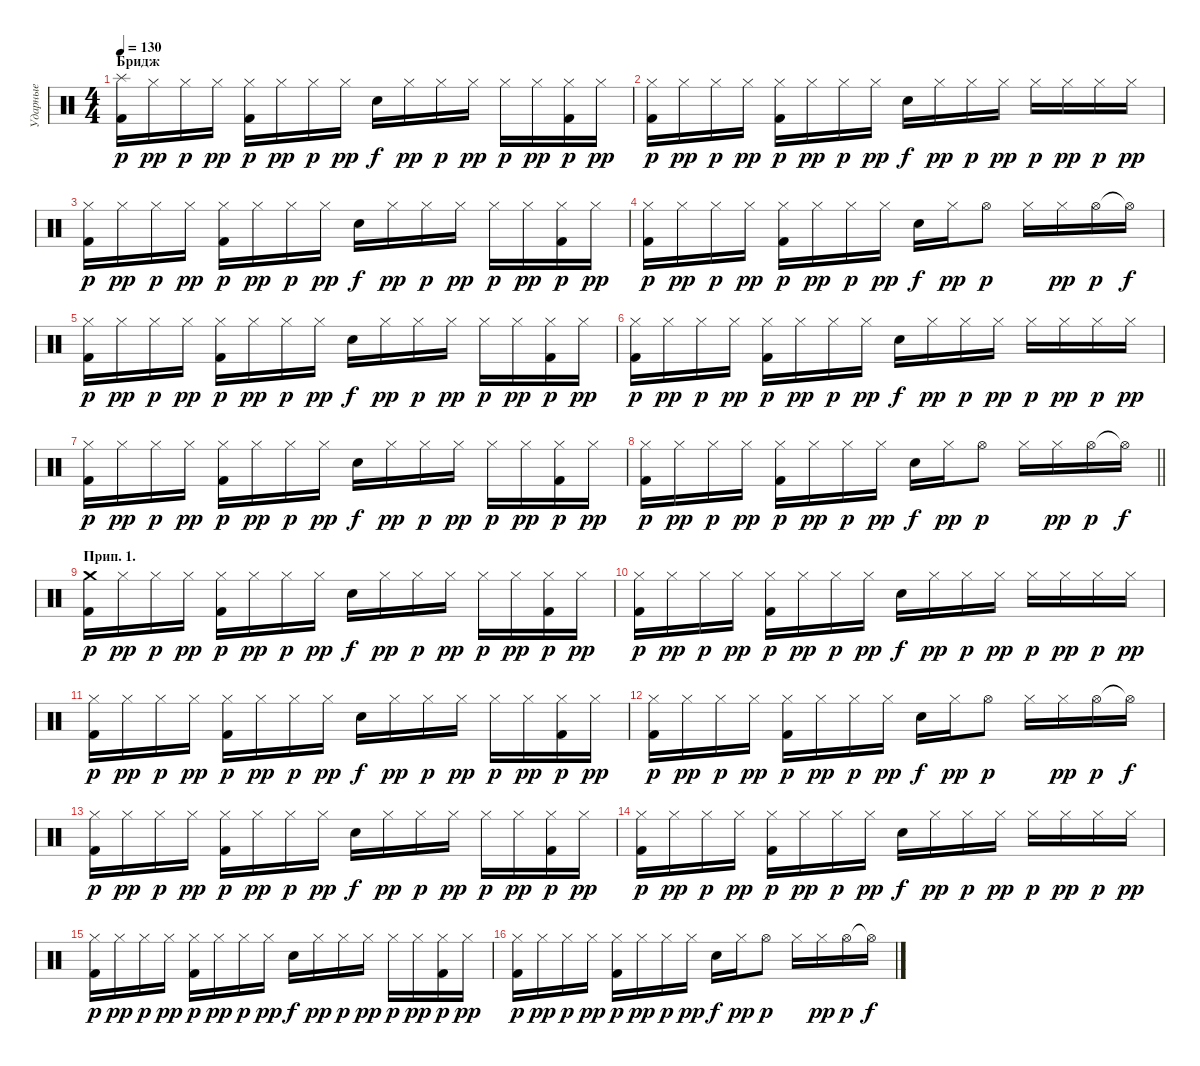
\track ("Ударные" "Ударные") {instrument percussion}
\staff {score}
\articulation defaults
\ts (4 4)
\section ("" "Бридж")
\tempo 130
\clef neutral
\ks c
("Splash (hit)" "Kick (hit) 2").16{dy p} "Hi-Hat (closed)".16{dy pp} "Hi-Hat (closed)".16{dy p} "Hi-Hat (closed)".16{dy pp} ("Hi-Hat (closed)" "Kick (hit) 2").16{dy p} "Hi-Hat (closed)".16{dy pp} "Hi-Hat (closed)".16{dy p} "Hi-Hat (closed)".16{dy pp} "Snare (hit) 2".16{dy f} "Hi-Hat (closed)".16{dy pp} "Hi-Hat (closed)".16{dy p} "Hi-Hat (closed)".16{dy pp} "Hi-Hat (closed)".16{dy p} "Hi-Hat (closed)".16{dy pp} ("Hi-Hat (closed)" "Kick (hit) 2").16{dy p} "Hi-Hat (closed)".16{dy pp} |
("Hi-Hat (closed)" "Kick (hit) 2").16{dy p} "Hi-Hat (closed)".16{dy pp} "Hi-Hat (closed)".16{dy p} "Hi-Hat (closed)".16{dy pp} ("Hi-Hat (closed)" "Kick (hit) 2").16{dy p} "Hi-Hat (closed)".16{dy pp} "Hi-Hat (closed)".16{dy p} "Hi-Hat (closed)".16{dy pp} "Snare (hit) 2".16{dy f} "Hi-Hat (closed)".16{dy pp} "Hi-Hat (closed)".16{dy p} "Hi-Hat (closed)".16{dy pp} "Hi-Hat (closed)".16{dy p} "Hi-Hat (closed)".16{dy pp} "Hi-Hat (closed)".16{dy p} "Hi-Hat (closed)".16{dy pp} |
("Hi-Hat (closed)" "Kick (hit) 2").16{dy p} "Hi-Hat (closed)".16{dy pp} "Hi-Hat (closed)".16{dy p} "Hi-Hat (closed)".16{dy pp} ("Hi-Hat (closed)" "Kick (hit) 2").16{dy p} "Hi-Hat (closed)".16{dy pp} "Hi-Hat (closed)".16{dy p} "Hi-Hat (closed)".16{dy pp} "Snare (hit) 2".16{dy f} "Hi-Hat (closed)".16{dy pp} "Hi-Hat (closed)".16{dy p} "Hi-Hat (closed)".16{dy pp} "Hi-Hat (closed)".16{dy p} "Hi-Hat (closed)".16{dy pp} ("Hi-Hat (closed)" "Kick (hit) 2").16{dy p} "Hi-Hat (closed)".16{dy pp} |
("Hi-Hat (closed)" "Kick (hit) 2").16{dy p} "Hi-Hat (closed)".16{dy pp} "Hi-Hat (closed)".16{dy p} "Hi-Hat (closed)".16{dy pp} ("Hi-Hat (closed)" "Kick (hit) 2").16{dy p} "Hi-Hat (closed)".16{dy pp} "Hi-Hat (closed)".16{dy p} "Hi-Hat (closed)".16{dy pp} "Snare (hit) 2".16{dy f} "Hi-Hat (closed)".16{dy pp} "Hi-Hat (open)".8{dy p} "Hi-Hat (closed)".16 "Hi-Hat (closed)".16{dy pp} "Hi-Hat (open)".16{dy p} "Hi-Hat (open)"{t}.16{dy f} |
("Hi-Hat (closed)" "Kick (hit) 2").16{dy p} "Hi-Hat (closed)".16{dy pp} "Hi-Hat (closed)".16{dy p} "Hi-Hat (closed)".16{dy pp} ("Hi-Hat (closed)" "Kick (hit) 2").16{dy p} "Hi-Hat (closed)".16{dy pp} "Hi-Hat (closed)".16{dy p} "Hi-Hat (closed)".16{dy pp} "Snare (hit) 2".16{dy f} "Hi-Hat (closed)".16{dy pp} "Hi-Hat (closed)".16{dy p} "Hi-Hat (closed)".16{dy pp} "Hi-Hat (closed)".16{dy p} "Hi-Hat (closed)".16{dy pp} ("Hi-Hat (closed)" "Kick (hit) 2").16{dy p} "Hi-Hat (closed)".16{dy pp} |
("Hi-Hat (closed)" "Kick (hit) 2").16{dy p} "Hi-Hat (closed)".16{dy pp} "Hi-Hat (closed)".16{dy p} "Hi-Hat (closed)".16{dy pp} ("Hi-Hat (closed)" "Kick (hit) 2").16{dy p} "Hi-Hat (closed)".16{dy pp} "Hi-Hat (closed)".16{dy p} "Hi-Hat (closed)".16{dy pp} "Snare (hit) 2".16{dy f} "Hi-Hat (closed)".16{dy pp} "Hi-Hat (closed)".16{dy p} "Hi-Hat (closed)".16{dy pp} "Hi-Hat (closed)".16{dy p} "Hi-Hat (closed)".16{dy pp} "Hi-Hat (closed)".16{dy p} "Hi-Hat (closed)".16{dy pp} |
("Hi-Hat (closed)" "Kick (hit) 2").16{dy p} "Hi-Hat (closed)".16{dy pp} "Hi-Hat (closed)".16{dy p} "Hi-Hat (closed)".16{dy pp} ("Hi-Hat (closed)" "Kick (hit) 2").16{dy p} "Hi-Hat (closed)".16{dy pp} "Hi-Hat (closed)".16{dy p} "Hi-Hat (closed)".16{dy pp} "Snare (hit) 2".16{dy f} "Hi-Hat (closed)".16{dy pp} "Hi-Hat (closed)".16{dy p} "Hi-Hat (closed)".16{dy pp} "Hi-Hat (closed)".16{dy p} "Hi-Hat (closed)".16{dy pp} ("Hi-Hat (closed)" "Kick (hit) 2").16{dy p} "Hi-Hat (closed)".16{dy pp} |
\barLineRight lightlight
("Hi-Hat (closed)" "Kick (hit) 2").16{dy p} "Hi-Hat (closed)".16{dy pp} "Hi-Hat (closed)".16{dy p} "Hi-Hat (closed)".16{dy pp} ("Hi-Hat (closed)" "Kick (hit) 2").16{dy p} "Hi-Hat (closed)".16{dy pp} "Hi-Hat (closed)".16{dy p} "Hi-Hat (closed)".16{dy pp} "Snare (hit) 2".16{dy f} "Hi-Hat (closed)".16{dy pp} "Hi-Hat (open)".8{dy p} "Hi-Hat (closed)".16 "Hi-Hat (closed)".16{dy pp} "Hi-Hat (open)".16{dy p} "Hi-Hat (open)"{t}.16{dy f} |
\section ("" "Прип. 1.")
("Crash medium (hit)" "Kick (hit) 2").16{dy p} "Hi-Hat (closed)".16{dy pp} "Hi-Hat (closed)".16{dy p} "Hi-Hat (closed)".16{dy pp} ("Hi-Hat (closed)" "Kick (hit) 2").16{dy p} "Hi-Hat (closed)".16{dy pp} "Hi-Hat (closed)".16{dy p} "Hi-Hat (closed)".16{dy pp} "Snare (hit) 2".16{dy f} "Hi-Hat (closed)".16{dy pp} "Hi-Hat (closed)".16{dy p} "Hi-Hat (closed)".16{dy pp} "Hi-Hat (closed)".16{dy p} "Hi-Hat (closed)".16{dy pp} ("Hi-Hat (closed)" "Kick (hit) 2").16{dy p} "Hi-Hat (closed)".16{dy pp} |
("Hi-Hat (closed)" "Kick (hit) 2").16{dy p} "Hi-Hat (closed)".16{dy pp} "Hi-Hat (closed)".16{dy p} "Hi-Hat (closed)".16{dy pp} ("Hi-Hat (closed)" "Kick (hit) 2").16{dy p} "Hi-Hat (closed)".16{dy pp} "Hi-Hat (closed)".16{dy p} "Hi-Hat (closed)".16{dy pp} "Snare (hit) 2".16{dy f} "Hi-Hat (closed)".16{dy pp} "Hi-Hat (closed)".16{dy p} "Hi-Hat (closed)".16{dy pp} "Hi-Hat (closed)".16{dy p} "Hi-Hat (closed)".16{dy pp} "Hi-Hat (closed)".16{dy p} "Hi-Hat (closed)".16{dy pp} |
("Hi-Hat (closed)" "Kick (hit) 2").16{dy p} "Hi-Hat (closed)".16{dy pp} "Hi-Hat (closed)".16{dy p} "Hi-Hat (closed)".16{dy pp} ("Hi-Hat (closed)" "Kick (hit) 2").16{dy p} "Hi-Hat (closed)".16{dy pp} "Hi-Hat (closed)".16{dy p} "Hi-Hat (closed)".16{dy pp} "Snare (hit) 2".16{dy f} "Hi-Hat (closed)".16{dy pp} "Hi-Hat (closed)".16{dy p} "Hi-Hat (closed)".16{dy pp} "Hi-Hat (closed)".16{dy p} "Hi-Hat (closed)".16{dy pp} ("Hi-Hat (closed)" "Kick (hit) 2").16{dy p} "Hi-Hat (closed)".16{dy pp} |
("Hi-Hat (closed)" "Kick (hit) 2").16{dy p} "Hi-Hat (closed)".16{dy pp} "Hi-Hat (closed)".16{dy p} "Hi-Hat (closed)".16{dy pp} ("Hi-Hat (closed)" "Kick (hit) 2").16{dy p} "Hi-Hat (closed)".16{dy pp} "Hi-Hat (closed)".16{dy p} "Hi-Hat (closed)".16{dy pp} "Snare (hit) 2".16{dy f} "Hi-Hat (closed)".16{dy pp} "Hi-Hat (open)".8{dy p} "Hi-Hat (closed)".16 "Hi-Hat (closed)".16{dy pp} "Hi-Hat (open)".16{dy p} "Hi-Hat (open)"{t}.16{dy f} |
("Hi-Hat (closed)" "Kick (hit) 2").16{dy p} "Hi-Hat (closed)".16{dy pp} "Hi-Hat (closed)".16{dy p} "Hi-Hat (closed)".16{dy pp} ("Hi-Hat (closed)" "Kick (hit) 2").16{dy p} "Hi-Hat (closed)".16{dy pp} "Hi-Hat (closed)".16{dy p} "Hi-Hat (closed)".16{dy pp} "Snare (hit) 2".16{dy f} "Hi-Hat (closed)".16{dy pp} "Hi-Hat (closed)".16{dy p} "Hi-Hat (closed)".16{dy pp} "Hi-Hat (closed)".16{dy p} "Hi-Hat (closed)".16{dy pp} ("Hi-Hat (closed)" "Kick (hit) 2").16{dy p} "Hi-Hat (closed)".16{dy pp} |
("Hi-Hat (closed)" "Kick (hit) 2").16{dy p} "Hi-Hat (closed)".16{dy pp} "Hi-Hat (closed)".16{dy p} "Hi-Hat (closed)".16{dy pp} ("Hi-Hat (closed)" "Kick (hit) 2").16{dy p} "Hi-Hat (closed)".16{dy pp} "Hi-Hat (closed)".16{dy p} "Hi-Hat (closed)".16{dy pp} "Snare (hit) 2".16{dy f} "Hi-Hat (closed)".16{dy pp} "Hi-Hat (closed)".16{dy p} "Hi-Hat (closed)".16{dy pp} "Hi-Hat (closed)".16{dy p} "Hi-Hat (closed)".16{dy pp} "Hi-Hat (closed)".16{dy p} "Hi-Hat (closed)".16{dy pp} |
("Hi-Hat (closed)" "Kick (hit) 2").16{dy p} "Hi-Hat (closed)".16{dy pp} "Hi-Hat (closed)".16{dy p} "Hi-Hat (closed)".16{dy pp} ("Hi-Hat (closed)" "Kick (hit) 2").16{dy p} "Hi-Hat (closed)".16{dy pp} "Hi-Hat (closed)".16{dy p} "Hi-Hat (closed)".16{dy pp} "Snare (hit) 2".16{dy f} "Hi-Hat (closed)".16{dy pp} "Hi-Hat (closed)".16{dy p} "Hi-Hat (closed)".16{dy pp} "Hi-Hat (closed)".16{dy p} "Hi-Hat (closed)".16{dy pp} ("Hi-Hat (closed)" "Kick (hit) 2").16{dy p} "Hi-Hat (closed)".16{dy pp} |
("Hi-Hat (closed)" "Kick (hit) 2").16{dy p} "Hi-Hat (closed)".16{dy pp} "Hi-Hat (closed)".16{dy p} "Hi-Hat (closed)".16{dy pp} ("Hi-Hat (closed)" "Kick (hit) 2").16{dy p} "Hi-Hat (closed)".16{dy pp} "Hi-Hat (closed)".16{dy p} "Hi-Hat (closed)".16{dy pp} "Snare (hit) 2".16{dy f} "Hi-Hat (closed)".16{dy pp} "Hi-Hat (open)".8{dy p} "Hi-Hat (closed)".16 "Hi-Hat (closed)".16{dy pp} "Hi-Hat (open)".16{dy p} "Hi-Hat (open)"{t}.16{dy f}
